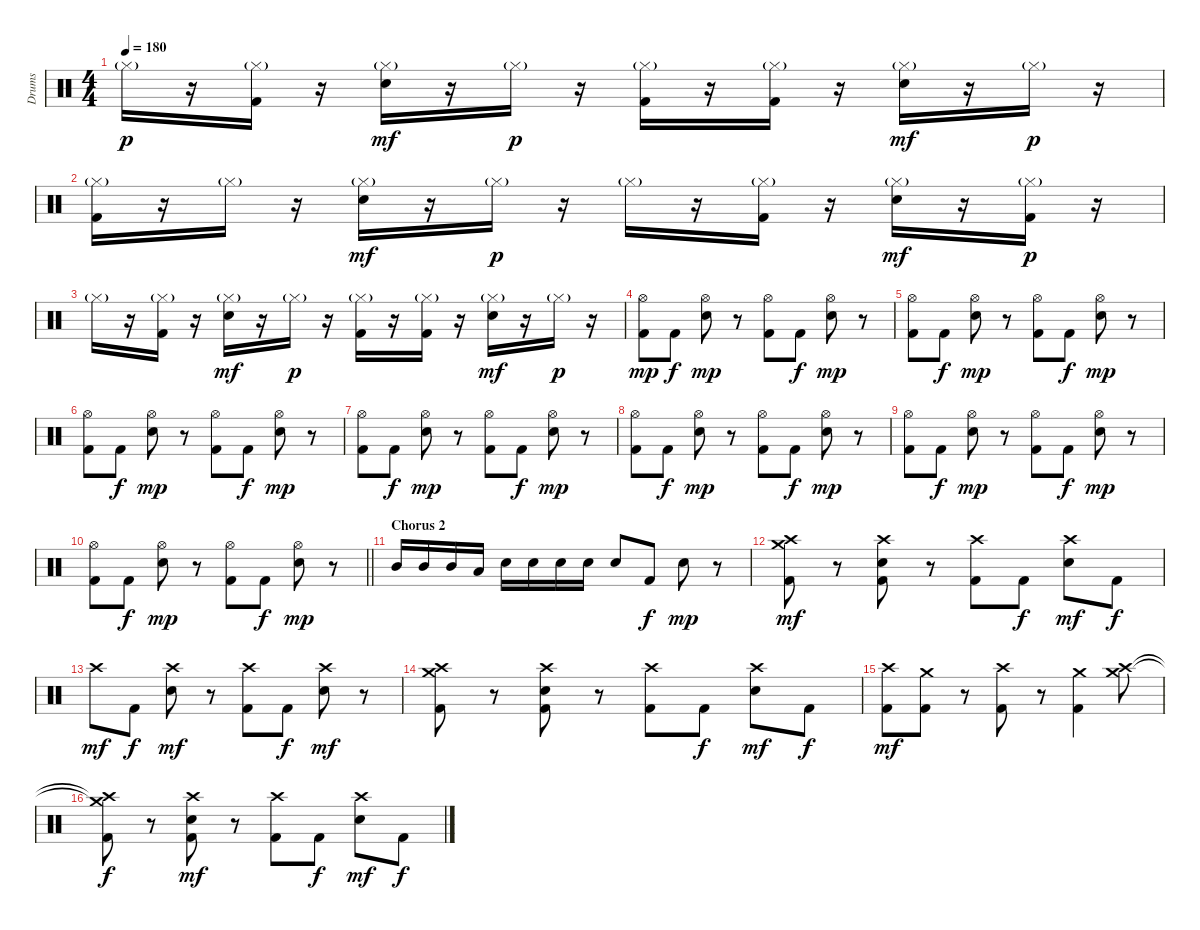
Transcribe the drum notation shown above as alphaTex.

\track ("Drums" "Drums") {instrument percussion}
\staff {score}
\articulation defaults
\ts (4 4)
\tempo 180
\clef neutral
\ks c "Hi-Hat (closed)"{g}.16{dy p}
r.16 ("Hi-Hat (closed)"{g} "Kick (hit) 2").16 r.16 ("Hi-Hat (closed)"{g} "Electric Snare (hit)").16{dy mf} r.16 "Hi-Hat (closed)"{g}.16{dy p} r.16 ("Hi-Hat (closed)"{g} "Kick (hit) 2").16 r.16 ("Hi-Hat (closed)"{g} "Kick (hit) 2").16 r.16 ("Hi-Hat (closed)"{g} "Electric Snare (hit)").16{dy mf} r.16 "Hi-Hat (closed)"{g}.16{dy p} r.16 |
("Hi-Hat (closed)"{g} "Kick (hit) 2").16 r.16 "Hi-Hat (closed)"{g}.16 r.16 ("Hi-Hat (closed)"{g} "Electric Snare (hit)").16{dy mf} r.16 "Hi-Hat (closed)"{g}.16{dy p} r.16 "Hi-Hat (closed)"{g}.16 r.16 ("Hi-Hat (closed)"{g} "Kick (hit) 2").16 r.16 ("Hi-Hat (closed)"{g} "Electric Snare (hit)").16{dy mf} r.16 ("Hi-Hat (closed)"{g} "Kick (hit) 2").16{dy p} r.16 |
"Hi-Hat (closed)"{g}.16 r.16 ("Hi-Hat (closed)"{g} "Kick (hit) 2").16 r.16 ("Hi-Hat (closed)"{g} "Electric Snare (hit)").16{dy mf} r.16 "Hi-Hat (closed)"{g}.16{dy p} r.16 ("Hi-Hat (closed)"{g} "Kick (hit) 2").16 r.16 ("Hi-Hat (closed)"{g} "Kick (hit) 2").16 r.16 ("Hi-Hat (closed)"{g} "Electric Snare (hit)").16{dy mf} r.16 "Hi-Hat (closed)"{g}.16{dy p} r.16 |
("Hi-Hat (open)" "Kick (hit) 2").8{dy mp} "Kick (hit) 2".8{dy f} ("Hi-Hat (open)" "Electric Snare (hit)").8{dy mp} r.8 ("Hi-Hat (open)" "Kick (hit) 2").8 "Kick (hit) 2".8{dy f} ("Hi-Hat (open)" "Electric Snare (hit)").8{dy mp} r.8 |
("Hi-Hat (open)" "Kick (hit) 2").8 "Kick (hit) 2".8{dy f} ("Hi-Hat (open)" "Electric Snare (hit)").8{dy mp} r.8 ("Hi-Hat (open)" "Kick (hit) 2").8 "Kick (hit) 2".8{dy f} ("Hi-Hat (open)" "Electric Snare (hit)").8{dy mp} r.8 |
("Hi-Hat (open)" "Kick (hit) 2").8 "Kick (hit) 2".8{dy f} ("Hi-Hat (open)" "Electric Snare (hit)").8{dy mp} r.8 ("Hi-Hat (open)" "Kick (hit) 2").8 "Kick (hit) 2".8{dy f} ("Hi-Hat (open)" "Electric Snare (hit)").8{dy mp} r.8 |
("Hi-Hat (open)" "Kick (hit) 2").8 "Kick (hit) 2".8{dy f} ("Hi-Hat (open)" "Electric Snare (hit)").8{dy mp} r.8 ("Hi-Hat (open)" "Kick (hit) 2").8 "Kick (hit) 2".8{dy f} ("Hi-Hat (open)" "Electric Snare (hit)").8{dy mp} r.8 |
("Hi-Hat (open)" "Kick (hit) 2").8 "Kick (hit) 2".8{dy f} ("Hi-Hat (open)" "Electric Snare (hit)").8{dy mp} r.8 ("Hi-Hat (open)" "Kick (hit) 2").8 "Kick (hit) 2".8{dy f} ("Hi-Hat (open)" "Electric Snare (hit)").8{dy mp} r.8 |
("Hi-Hat (open)" "Kick (hit) 2").8 "Kick (hit) 2".8{dy f} ("Hi-Hat (open)" "Electric Snare (hit)").8{dy mp} r.8 ("Hi-Hat (open)" "Kick (hit) 2").8 "Kick (hit) 2".8{dy f} ("Hi-Hat (open)" "Electric Snare (hit)").8{dy mp} r.8 |
\barLineRight lightlight
("Hi-Hat (open)" "Kick (hit) 2").8 "Kick (hit) 2".8{dy f} ("Hi-Hat (open)" "Electric Snare (hit)").8{dy mp} r.8 ("Hi-Hat (open)" "Kick (hit) 2").8 "Kick (hit) 2".8{dy f} ("Hi-Hat (open)" "Electric Snare (hit)").8{dy mp} r.8 |
\section ("" "Chorus 2")
"Mid Tom (hit)".16 "Mid Tom (hit)".16 "Mid Tom (hit)".16 "Low Tom (hit)".16 "Electric Snare (hit)".16 "Electric Snare (hit)".16 "Electric Snare (hit)".16 "Electric Snare (hit)".16 "Electric Snare (hit)".8 "Kick (hit) 2".8{dy f} "Electric Snare (hit)".8{dy mp} r.8 |
("Crash high (hit)" "Crash medium (hit)" "Kick (hit) 2").8{dy mf} r.8 ("Crash high (hit)" "Electric Snare (hit)" "Kick (hit) 2").8 r.8 ("Crash high (hit)" "Kick (hit) 2").8 "Kick (hit) 2".8{dy f} ("Crash high (hit)" "Electric Snare (hit)").8{dy mf} "Kick (hit) 2".8{dy f} |
"Crash high (hit)".8{dy mf} "Kick (hit) 2".8{dy f} ("Crash high (hit)" "Electric Snare (hit)").8{dy mf} r.8 ("Crash high (hit)" "Kick (hit) 2").8 "Kick (hit) 2".8{dy f} ("Crash high (hit)" "Electric Snare (hit)").8{dy mf} r.8 |
("Crash high (hit)" "Crash medium (hit)" "Kick (hit) 2").8 r.8 ("Crash high (hit)" "Electric Snare (hit)" "Kick (hit) 2").8 r.8 ("Crash high (hit)" "Kick (hit) 2").8 "Kick (hit) 2".8{dy f} ("Crash high (hit)" "Electric Snare (hit)").8{dy mf} "Kick (hit) 2".8{dy f} |
("Crash high (hit)" "Kick (hit) 2").8{dy mf} ("Crash medium (hit)" "Kick (hit) 2").8 r.8 ("Crash high (hit)" "Kick (hit) 2").8 r.8 ("Crash medium (hit)" "Kick (hit) 2").4 ("Crash high (hit)" "Crash medium (hit)").8 |
("Crash high (hit)"{t} "Crash medium (hit)"{t} "Kick (hit) 2").8{dy f} r.8 ("Crash high (hit)" "Electric Snare (hit)" "Kick (hit) 2").8{dy mf} r.8 ("Crash high (hit)" "Kick (hit) 2").8 "Kick (hit) 2".8{dy f} ("Crash high (hit)" "Electric Snare (hit)").8{dy mf} "Kick (hit) 2".8{dy f}
